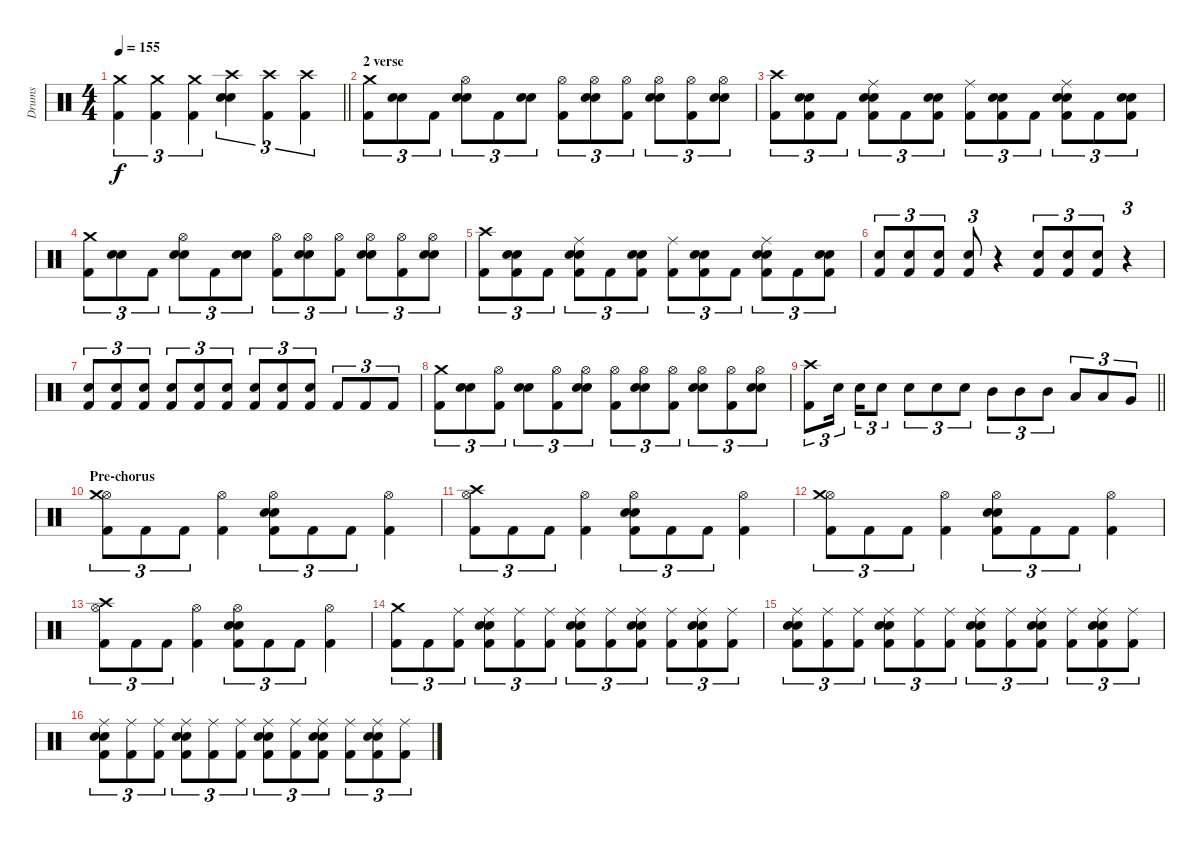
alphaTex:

\track ("Drums" "Drums") {instrument percussion}
\staff {score}
\articulation defaults
\ts (4 4)
\tempo 155
\clef neutral
\barLineRight lightlight
\ks c
("Crash medium (hit)" "Kick (hit) 2").4{tu (3 2) dy f} ("Crash medium (hit)" "Kick (hit) 2").4{tu (3 2)} ("Crash medium (hit)" "Kick (hit) 2").4{tu (3 2)} ("Crash high (hit)" "Electric Snare (hit)" "Electric Snare (hit)").4{tu (3 2)} ("Crash high (hit)" "Kick (hit) 2").4{tu (3 2)} ("Crash high (hit)" "Kick (hit) 2").4{tu (3 2)} |
\section ("" "2 verse")
("Crash medium (hit)" "Kick (hit) 2").8{tu (3 2)} ("Electric Snare (hit)" "Electric Snare (hit)").8{tu (3 2)} "Kick (hit) 2".8{tu (3 2)} ("Hi-Hat (open)" "Electric Snare (hit)" "Electric Snare (hit)").8{tu (3 2)} "Kick (hit) 2".8{tu (3 2)} ("Electric Snare (hit)" "Electric Snare (hit)").8{tu (3 2)} ("Hi-Hat (open)" "Kick (hit) 2").8{tu (3 2)} ("Hi-Hat (open)" "Electric Snare (hit)" "Electric Snare (hit)").8{tu (3 2)} ("Hi-Hat (open)" "Kick (hit) 2").8{tu (3 2)} ("Hi-Hat (open)" "Electric Snare (hit)" "Electric Snare (hit)").8{tu (3 2)} ("Hi-Hat (open)" "Kick (hit) 2").8{tu (3 2)} ("Hi-Hat (open)" "Electric Snare (hit)" "Electric Snare (hit)").8{tu (3 2)} |
("Crash high (hit)" "Kick (hit) 2").8{tu (3 2)} ("Electric Snare (hit)" "Electric Snare (hit)" "Kick (hit) 2").8{tu (3 2)} "Kick (hit) 2".8{tu (3 2)} ("Ride (middle)" "Electric Snare (hit)" "Electric Snare (hit)" "Kick (hit) 2").8{tu (3 2)} "Kick (hit) 2".8{tu (3 2)} ("Electric Snare (hit)" "Electric Snare (hit)" "Kick (hit) 2").8{tu (3 2)} ("Ride (middle)" "Kick (hit) 2").8{tu (3 2)} ("Electric Snare (hit)" "Electric Snare (hit)" "Kick (hit) 2").8{tu (3 2)} "Kick (hit) 2".8{tu (3 2)} ("Ride (middle)" "Electric Snare (hit)" "Electric Snare (hit)" "Kick (hit) 2").8{tu (3 2)} "Kick (hit) 2".8{tu (3 2)} ("Electric Snare (hit)" "Electric Snare (hit)" "Kick (hit) 2").8{tu (3 2)} |
("Crash medium (hit)" "Kick (hit) 2").8{tu (3 2)} ("Electric Snare (hit)" "Electric Snare (hit)").8{tu (3 2)} "Kick (hit) 2".8{tu (3 2)} ("Hi-Hat (open)" "Electric Snare (hit)" "Electric Snare (hit)").8{tu (3 2)} "Kick (hit) 2".8{tu (3 2)} ("Electric Snare (hit)" "Electric Snare (hit)").8{tu (3 2)} ("Hi-Hat (open)" "Kick (hit) 2").8{tu (3 2)} ("Hi-Hat (open)" "Electric Snare (hit)" "Electric Snare (hit)").8{tu (3 2)} ("Hi-Hat (open)" "Kick (hit) 2").8{tu (3 2)} ("Hi-Hat (open)" "Electric Snare (hit)" "Electric Snare (hit)").8{tu (3 2)} ("Hi-Hat (open)" "Kick (hit) 2").8{tu (3 2)} ("Hi-Hat (open)" "Electric Snare (hit)" "Electric Snare (hit)").8{tu (3 2)} |
("Crash high (hit)" "Kick (hit) 2").8{tu (3 2)} ("Electric Snare (hit)" "Electric Snare (hit)" "Kick (hit) 2").8{tu (3 2)} "Kick (hit) 2".8{tu (3 2)} ("Ride (middle)" "Electric Snare (hit)" "Electric Snare (hit)" "Kick (hit) 2").8{tu (3 2)} "Kick (hit) 2".8{tu (3 2)} ("Electric Snare (hit)" "Electric Snare (hit)" "Kick (hit) 2").8{tu (3 2)} ("Ride (middle)" "Kick (hit) 2").8{tu (3 2)} ("Electric Snare (hit)" "Electric Snare (hit)" "Kick (hit) 2").8{tu (3 2)} "Kick (hit) 2".8{tu (3 2)} ("Ride (middle)" "Electric Snare (hit)" "Electric Snare (hit)" "Kick (hit) 2").8{tu (3 2)} "Kick (hit) 2".8{tu (3 2)} ("Electric Snare (hit)" "Electric Snare (hit)" "Kick (hit) 2").8{tu (3 2)} |
("Electric Snare (hit)" "Kick (hit) 2").8{tu (3 2)} ("Electric Snare (hit)" "Kick (hit) 2").8{tu (3 2)} ("Electric Snare (hit)" "Kick (hit) 2").8{tu (3 2)} ("Electric Snare (hit)" "Kick (hit) 2").8{tu (3 2)} r.4 ("Electric Snare (hit)" "Kick (hit) 2").8{tu (3 2)} ("Electric Snare (hit)" "Kick (hit) 2").8{tu (3 2)} ("Electric Snare (hit)" "Kick (hit) 2").8{tu (3 2)} r.4{tu (3 2)} |
("Electric Snare (hit)" "Kick (hit) 2").8{tu (3 2)} ("Electric Snare (hit)" "Kick (hit) 2").8{tu (3 2)} ("Electric Snare (hit)" "Kick (hit) 2").8{tu (3 2)} ("Electric Snare (hit)" "Kick (hit) 2").8{tu (3 2)} ("Electric Snare (hit)" "Kick (hit) 2").8{tu (3 2)} ("Electric Snare (hit)" "Kick (hit) 2").8{tu (3 2)} ("Electric Snare (hit)" "Kick (hit) 2").8{tu (3 2)} ("Electric Snare (hit)" "Kick (hit) 2").8{tu (3 2)} ("Electric Snare (hit)" "Kick (hit) 2").8{tu (3 2)} "Kick (hit) 2".8{tu (3 2)} "Kick (hit) 2".8{tu (3 2)} "Kick (hit) 2".8{tu (3 2)} |
("Crash medium (hit)" "Kick (hit) 2").8{tu (3 2)} ("Electric Snare (hit)" "Electric Snare (hit)").8{tu (3 2)} ("Hi-Hat (open)" "Kick (hit) 2").8{tu (3 2)} ("Electric Snare (hit)" "Electric Snare (hit)").8{tu (3 2)} ("Hi-Hat (open)" "Kick (hit) 2").8{tu (3 2)} ("Hi-Hat (open)" "Electric Snare (hit)" "Electric Snare (hit)").8{tu (3 2)} ("Hi-Hat (open)" "Kick (hit) 2").8{tu (3 2)} ("Hi-Hat (open)" "Electric Snare (hit)" "Electric Snare (hit)").8{tu (3 2)} ("Hi-Hat (open)" "Kick (hit) 2").8{tu (3 2)} ("Hi-Hat (open)" "Electric Snare (hit)" "Electric Snare (hit)").8{tu (3 2)} ("Hi-Hat (open)" "Kick (hit) 2").8{tu (3 2)} ("Hi-Hat (open)" "Electric Snare (hit)" "Electric Snare (hit)").8{tu (3 2)} |
\barLineRight lightlight
("Crash high (hit)" "Kick (hit) 2").8{tu (3 2)} "Electric Snare (hit)".16{tu (3 2) beam splitsecondary} "Electric Snare (hit)".16{tu (3 2)} "Electric Snare (hit)".8{tu (3 2)} "Electric Snare (hit)".8{tu (3 2)} "Electric Snare (hit)".8{tu (3 2)} "Electric Snare (hit)".8{tu (3 2)} "Mid Tom (hit)".8{tu (3 2)} "Mid Tom (hit)".8{tu (3 2)} "Mid Tom (hit)".8{tu (3 2)} "Low Tom (hit)".8{tu (3 2)} "Low Tom (hit)".8{tu (3 2)} "Very Low Tom (hit)".8{tu (3 2)} |
\section ("" "Pre-chorus")
("Hi-Hat (open)" "Crash medium (hit)" "Kick (hit) 2").8{tu (3 2)} "Kick (hit) 2".8{tu (3 2)} "Kick (hit) 2".8{tu (3 2)} ("Hi-Hat (open)" "Kick (hit) 2").4 ("Hi-Hat (open)" "Electric Snare (hit)" "Electric Snare (hit)" "Kick (hit) 2").8{tu (3 2)} "Kick (hit) 2".8{tu (3 2)} "Kick (hit) 2".8{tu (3 2)} ("Hi-Hat (open)" "Kick (hit) 2").4 |
("Hi-Hat (open)" "Crash high (hit)" "Kick (hit) 2").8{tu (3 2)} "Kick (hit) 2".8{tu (3 2)} "Kick (hit) 2".8{tu (3 2)} ("Hi-Hat (open)" "Kick (hit) 2").4 ("Hi-Hat (open)" "Electric Snare (hit)" "Electric Snare (hit)" "Kick (hit) 2").8{tu (3 2)} "Kick (hit) 2".8{tu (3 2)} "Kick (hit) 2".8{tu (3 2)} ("Hi-Hat (open)" "Kick (hit) 2").4 |
("Hi-Hat (open)" "Crash medium (hit)" "Kick (hit) 2").8{tu (3 2)} "Kick (hit) 2".8{tu (3 2)} "Kick (hit) 2".8{tu (3 2)} ("Hi-Hat (open)" "Kick (hit) 2").4 ("Hi-Hat (open)" "Electric Snare (hit)" "Electric Snare (hit)" "Kick (hit) 2").8{tu (3 2)} "Kick (hit) 2".8{tu (3 2)} "Kick (hit) 2".8{tu (3 2)} ("Hi-Hat (open)" "Kick (hit) 2").4 |
("Hi-Hat (open)" "Crash high (hit)" "Kick (hit) 2").8{tu (3 2)} "Kick (hit) 2".8{tu (3 2)} "Kick (hit) 2".8{tu (3 2)} ("Hi-Hat (open)" "Kick (hit) 2").4 ("Hi-Hat (open)" "Electric Snare (hit)" "Electric Snare (hit)" "Kick (hit) 2").8{tu (3 2)} "Kick (hit) 2".8{tu (3 2)} "Kick (hit) 2".8{tu (3 2)} ("Hi-Hat (open)" "Kick (hit) 2").4 |
("Crash medium (hit)" "Kick (hit) 2").8{tu (3 2)} "Kick (hit) 2".8{tu (3 2)} ("Ride (middle)" "Kick (hit) 2").8{tu (3 2)} ("Ride (middle)" "Electric Snare (hit)" "Electric Snare (hit)" "Kick (hit) 2").8{tu (3 2)} ("Ride (middle)" "Kick (hit) 2").8{tu (3 2)} ("Ride (middle)" "Kick (hit) 2").8{tu (3 2)} ("Ride (middle)" "Electric Snare (hit)" "Electric Snare (hit)" "Kick (hit) 2").8{tu (3 2)} ("Ride (middle)" "Kick (hit) 2").8{tu (3 2)} ("Ride (middle)" "Electric Snare (hit)" "Electric Snare (hit)" "Kick (hit) 2").8{tu (3 2)} ("Ride (middle)" "Kick (hit) 2").8{tu (3 2)} ("Ride (middle)" "Electric Snare (hit)" "Electric Snare (hit)" "Kick (hit) 2").8{tu (3 2)} ("Ride (middle)" "Kick (hit) 2").8{tu (3 2)} |
("Ride (middle)" "Electric Snare (hit)" "Electric Snare (hit)" "Kick (hit) 2").8{tu (3 2)} ("Ride (middle)" "Kick (hit) 2").8{tu (3 2)} ("Ride (middle)" "Kick (hit) 2").8{tu (3 2)} ("Ride (middle)" "Electric Snare (hit)" "Electric Snare (hit)" "Kick (hit) 2").8{tu (3 2)} ("Ride (middle)" "Kick (hit) 2").8{tu (3 2)} ("Ride (middle)" "Kick (hit) 2").8{tu (3 2)} ("Ride (middle)" "Electric Snare (hit)" "Electric Snare (hit)" "Kick (hit) 2").8{tu (3 2)} ("Ride (middle)" "Kick (hit) 2").8{tu (3 2)} ("Ride (middle)" "Electric Snare (hit)" "Electric Snare (hit)" "Kick (hit) 2").8{tu (3 2)} ("Ride (middle)" "Kick (hit) 2").8{tu (3 2)} ("Ride (middle)" "Electric Snare (hit)" "Electric Snare (hit)" "Kick (hit) 2").8{tu (3 2)} ("Ride (middle)" "Kick (hit) 2").8{tu (3 2)} |
("Ride (middle)" "Electric Snare (hit)" "Electric Snare (hit)" "Kick (hit) 2").8{tu (3 2)} ("Ride (middle)" "Kick (hit) 2").8{tu (3 2)} ("Ride (middle)" "Kick (hit) 2").8{tu (3 2)} ("Ride (middle)" "Electric Snare (hit)" "Electric Snare (hit)" "Kick (hit) 2").8{tu (3 2)} ("Ride (middle)" "Kick (hit) 2").8{tu (3 2)} ("Ride (middle)" "Kick (hit) 2").8{tu (3 2)} ("Ride (middle)" "Electric Snare (hit)" "Electric Snare (hit)" "Kick (hit) 2").8{tu (3 2)} ("Ride (middle)" "Kick (hit) 2").8{tu (3 2)} ("Ride (middle)" "Electric Snare (hit)" "Electric Snare (hit)" "Kick (hit) 2").8{tu (3 2)} ("Ride (middle)" "Kick (hit) 2").8{tu (3 2)} ("Ride (middle)" "Electric Snare (hit)" "Electric Snare (hit)" "Kick (hit) 2").8{tu (3 2)} ("Ride (middle)" "Kick (hit) 2").8{tu (3 2)}
